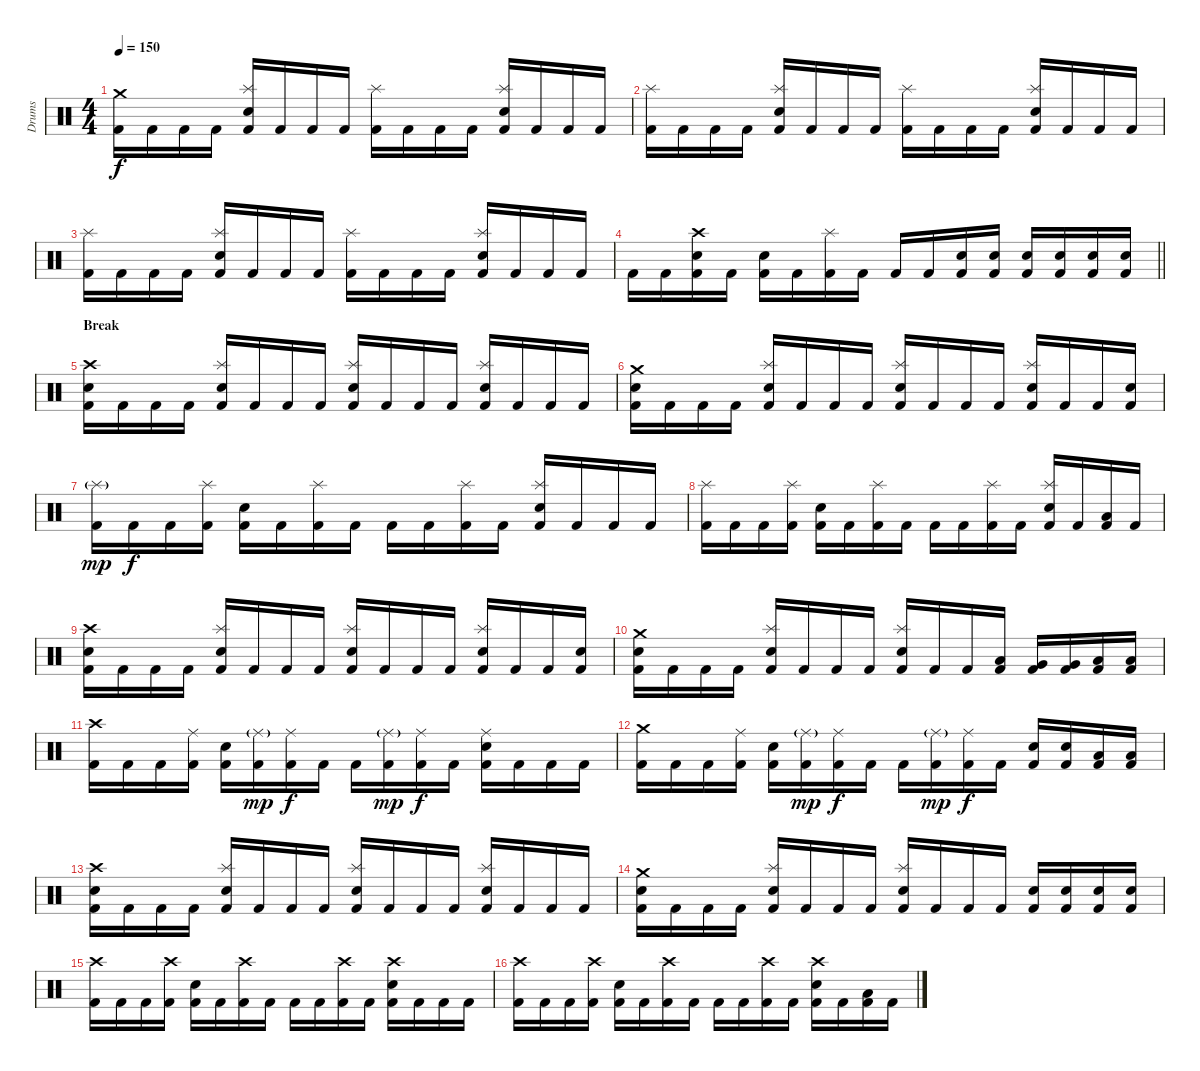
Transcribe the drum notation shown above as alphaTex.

\track ("Drums" "Drums") {instrument percussion}
\staff {score}
\articulation defaults
\ts (4 4)
\tempo 150
\clef neutral
\ks c
("Crash medium (hit)" "Kick (hit) 2").16{dy f} "Kick (hit) 2".16 "Kick (hit) 2".16 "Kick (hit) 2".16 ("Splash (hit)" "Electric Snare (hit)" "Kick (hit) 2").16 "Kick (hit) 2".16 "Kick (hit) 2".16 "Kick (hit) 2".16 ("Splash (hit)" "Kick (hit) 2").16 "Kick (hit) 2".16 "Kick (hit) 2".16 "Kick (hit) 2".16 ("Splash (hit)" "Electric Snare (hit)" "Kick (hit) 2").16 "Kick (hit) 2".16 "Kick (hit) 2".16 "Kick (hit) 2".16 |
("Splash (hit)" "Kick (hit) 2").16 "Kick (hit) 2".16 "Kick (hit) 2".16 "Kick (hit) 2".16 ("Splash (hit)" "Electric Snare (hit)" "Kick (hit) 2").16 "Kick (hit) 2".16 "Kick (hit) 2".16 "Kick (hit) 2".16 ("Splash (hit)" "Kick (hit) 2").16 "Kick (hit) 2".16 "Kick (hit) 2".16 "Kick (hit) 2".16 ("Splash (hit)" "Electric Snare (hit)" "Kick (hit) 2").16 "Kick (hit) 2".16 "Kick (hit) 2".16 "Kick (hit) 2".16 |
("Splash (hit)" "Kick (hit) 2").16 "Kick (hit) 2".16 "Kick (hit) 2".16 "Kick (hit) 2".16 ("Splash (hit)" "Electric Snare (hit)" "Kick (hit) 2").16 "Kick (hit) 2".16 "Kick (hit) 2".16 "Kick (hit) 2".16 ("Splash (hit)" "Kick (hit) 2").16 "Kick (hit) 2".16 "Kick (hit) 2".16 "Kick (hit) 2".16 ("Splash (hit)" "Electric Snare (hit)" "Kick (hit) 2").16 "Kick (hit) 2".16 "Kick (hit) 2".16 "Kick (hit) 2".16 |
\barLineRight lightlight "Kick (hit) 2".16 "Kick (hit) 2".16
("Crash high (hit)" "Electric Snare (hit)" "Kick (hit) 2").16 "Kick (hit) 2".16 ("Electric Snare (hit)" "Kick (hit) 2").16 "Kick (hit) 2".16 ("Splash (hit)" "Kick (hit) 2").16 "Kick (hit) 2".16 "Kick (hit) 2".16 "Kick (hit) 2".16 ("Electric Snare (hit)" "Kick (hit) 2").16 ("Electric Snare (hit)" "Kick (hit) 2").16 ("Electric Snare (hit)" "Kick (hit) 2").16 ("Electric Snare (hit)" "Kick (hit) 2").16 ("Electric Snare (hit)" "Kick (hit) 2").16 ("Electric Snare (hit)" "Kick (hit) 2").16 |
\section ("" "Break")
("Crash high (hit)" "Electric Snare (hit)" "Kick (hit) 2").16 "Kick (hit) 2".16 "Kick (hit) 2".16 "Kick (hit) 2".16 ("Splash (hit)" "Electric Snare (hit)" "Kick (hit) 2").16 "Kick (hit) 2".16 "Kick (hit) 2".16 "Kick (hit) 2".16 ("Splash (hit)" "Electric Snare (hit)" "Kick (hit) 2").16 "Kick (hit) 2".16 "Kick (hit) 2".16 "Kick (hit) 2".16 ("Splash (hit)" "Electric Snare (hit)" "Kick (hit) 2").16 "Kick (hit) 2".16 "Kick (hit) 2".16 "Kick (hit) 2".16 |
("Crash medium (hit)" "Electric Snare (hit)" "Kick (hit) 2").16 "Kick (hit) 2".16 "Kick (hit) 2".16 "Kick (hit) 2".16 ("Splash (hit)" "Electric Snare (hit)" "Kick (hit) 2").16 "Kick (hit) 2".16 "Kick (hit) 2".16 "Kick (hit) 2".16 ("Splash (hit)" "Electric Snare (hit)" "Kick (hit) 2").16 "Kick (hit) 2".16 "Kick (hit) 2".16 "Kick (hit) 2".16 ("Splash (hit)" "Electric Snare (hit)" "Kick (hit) 2").16 "Kick (hit) 2".16 "Kick (hit) 2".16 ("Electric Snare (hit)" "Kick (hit) 2").16 |
("Splash (hit)"{g} "Kick (hit) 2").16{dy mp} "Kick (hit) 2".16{dy f} "Kick (hit) 2".16 ("Splash (hit)" "Kick (hit) 2").16 ("Electric Snare (hit)" "Kick (hit) 2").16 "Kick (hit) 2".16 ("Splash (hit)" "Kick (hit) 2").16 "Kick (hit) 2".16 "Kick (hit) 2".16 "Kick (hit) 2".16 ("Splash (hit)" "Kick (hit) 2").16 "Kick (hit) 2".16 ("Splash (hit)" "Electric Snare (hit)" "Kick (hit) 2").16 "Kick (hit) 2".16 "Kick (hit) 2".16 "Kick (hit) 2".16 |
("Splash (hit)" "Kick (hit) 2").16 "Kick (hit) 2".16 "Kick (hit) 2".16 ("Splash (hit)" "Kick (hit) 2").16 ("Electric Snare (hit)" "Kick (hit) 2").16 "Kick (hit) 2".16 ("Splash (hit)" "Kick (hit) 2").16 "Kick (hit) 2".16 "Kick (hit) 2".16 "Kick (hit) 2".16 ("Splash (hit)" "Kick (hit) 2").16 "Kick (hit) 2".16 ("Splash (hit)" "Electric Snare (hit)" "Kick (hit) 2").16 "Kick (hit) 2".16 ("Low Floor Tom (hit)" "Kick (hit) 2").16 "Kick (hit) 2".16 |
("Crash high (hit)" "Electric Snare (hit)" "Kick (hit) 2").16 "Kick (hit) 2".16 "Kick (hit) 2".16 "Kick (hit) 2".16 ("Splash (hit)" "Electric Snare (hit)" "Kick (hit) 2").16 "Kick (hit) 2".16 "Kick (hit) 2".16 "Kick (hit) 2".16 ("Splash (hit)" "Electric Snare (hit)" "Kick (hit) 2").16 "Kick (hit) 2".16 "Kick (hit) 2".16 "Kick (hit) 2".16 ("Splash (hit)" "Electric Snare (hit)" "Kick (hit) 2").16 "Kick (hit) 2".16 "Kick (hit) 2".16 ("Electric Snare (hit)" "Kick (hit) 2").16 |
("Crash medium (hit)" "Electric Snare (hit)" "Kick (hit) 2").16 "Kick (hit) 2".16 "Kick (hit) 2".16 "Kick (hit) 2".16 ("Splash (hit)" "Electric Snare (hit)" "Kick (hit) 2").16 "Kick (hit) 2".16 "Kick (hit) 2".16 "Kick (hit) 2".16 ("Splash (hit)" "Electric Snare (hit)" "Kick (hit) 2").16 "Kick (hit) 2".16 "Kick (hit) 2".16 ("Low Floor Tom (hit)" "Kick (hit) 2").16 ("Very Low Tom (hit)" "Kick (hit) 2").16 ("Very Low Tom (hit)" "Kick (hit) 2").16 ("Low Floor Tom (hit)" "Kick (hit) 2").16 ("Low Floor Tom (hit)" "Kick (hit) 2").16 |
("Crash high (hit)" "Kick (hit) 2").16 "Kick (hit) 2".16 "Kick (hit) 2".16 ("Ride (middle)" "Kick (hit) 2").16 ("Electric Snare (hit)" "Kick (hit) 2").16 ("Ride (middle)"{g} "Kick (hit) 2").16{dy mp} ("Ride (middle)" "Kick (hit) 2").16{dy f} "Kick (hit) 2".16 "Kick (hit) 2".16 ("Ride (middle)"{g} "Kick (hit) 2").16{dy mp} ("Ride (middle)" "Kick (hit) 2").16{dy f} "Kick (hit) 2".16 ("Ride (middle)" "Electric Snare (hit)" "Kick (hit) 2").16 "Kick (hit) 2".16 "Kick (hit) 2".16 "Kick (hit) 2".16 |
("Crash medium (hit)" "Kick (hit) 2").16 "Kick (hit) 2".16 "Kick (hit) 2".16 ("Ride (middle)" "Kick (hit) 2").16 ("Electric Snare (hit)" "Kick (hit) 2").16 ("Ride (middle)"{g} "Kick (hit) 2").16{dy mp} ("Ride (middle)" "Kick (hit) 2").16{dy f} "Kick (hit) 2".16 "Kick (hit) 2".16 ("Ride (middle)"{g} "Kick (hit) 2").16{dy mp} ("Ride (middle)" "Kick (hit) 2").16{dy f} "Kick (hit) 2".16 ("Electric Snare (hit)" "Kick (hit) 2").16 ("Electric Snare (hit)" "Kick (hit) 2").16 ("Low Floor Tom (hit)" "Kick (hit) 2").16 ("Low Floor Tom (hit)" "Kick (hit) 2").16 |
("Crash high (hit)" "Electric Snare (hit)" "Kick (hit) 2").16 "Kick (hit) 2".16 "Kick (hit) 2".16 "Kick (hit) 2".16 ("Splash (hit)" "Electric Snare (hit)" "Kick (hit) 2").16 "Kick (hit) 2".16 "Kick (hit) 2".16 "Kick (hit) 2".16 ("Splash (hit)" "Electric Snare (hit)" "Kick (hit) 2").16 "Kick (hit) 2".16 "Kick (hit) 2".16 "Kick (hit) 2".16 ("Splash (hit)" "Electric Snare (hit)" "Kick (hit) 2").16 "Kick (hit) 2".16 "Kick (hit) 2".16 "Kick (hit) 2".16 |
("Crash medium (hit)" "Electric Snare (hit)" "Kick (hit) 2").16 "Kick (hit) 2".16 "Kick (hit) 2".16 "Kick (hit) 2".16 ("Splash (hit)" "Electric Snare (hit)" "Kick (hit) 2").16 "Kick (hit) 2".16 "Kick (hit) 2".16 "Kick (hit) 2".16 ("Splash (hit)" "Electric Snare (hit)" "Kick (hit) 2").16 "Kick (hit) 2".16 "Kick (hit) 2".16 "Kick (hit) 2".16 ("Electric Snare (hit)" "Kick (hit) 2").16 ("Electric Snare (hit)" "Kick (hit) 2").16 ("Electric Snare (hit)" "Kick (hit) 2").16 ("Electric Snare (hit)" "Kick (hit) 2").16 |
("Crash high (hit)" "Kick (hit) 2").16 "Kick (hit) 2".16 "Kick (hit) 2".16 ("Crash high (hit)" "Kick (hit) 2").16 ("Electric Snare (hit)" "Kick (hit) 2").16 "Kick (hit) 2".16 ("Crash high (hit)" "Kick (hit) 2").16 "Kick (hit) 2".16 "Kick (hit) 2".16 "Kick (hit) 2".16 ("Crash high (hit)" "Kick (hit) 2").16 "Kick (hit) 2".16 ("Crash high (hit)" "Electric Snare (hit)" "Kick (hit) 2").16 "Kick (hit) 2".16 "Kick (hit) 2".16 "Kick (hit) 2".16 |
("Crash high (hit)" "Kick (hit) 2").16 "Kick (hit) 2".16 "Kick (hit) 2".16 ("Crash high (hit)" "Kick (hit) 2").16 ("Electric Snare (hit)" "Kick (hit) 2").16 "Kick (hit) 2".16 ("Crash high (hit)" "Kick (hit) 2").16 "Kick (hit) 2".16 "Kick (hit) 2".16 "Kick (hit) 2".16 ("Crash high (hit)" "Kick (hit) 2").16 "Kick (hit) 2".16 ("Crash high (hit)" "Electric Snare (hit)" "Kick (hit) 2").16 "Kick (hit) 2".16 ("Low Floor Tom (hit)" "Kick (hit) 2").16 "Kick (hit) 2".16
